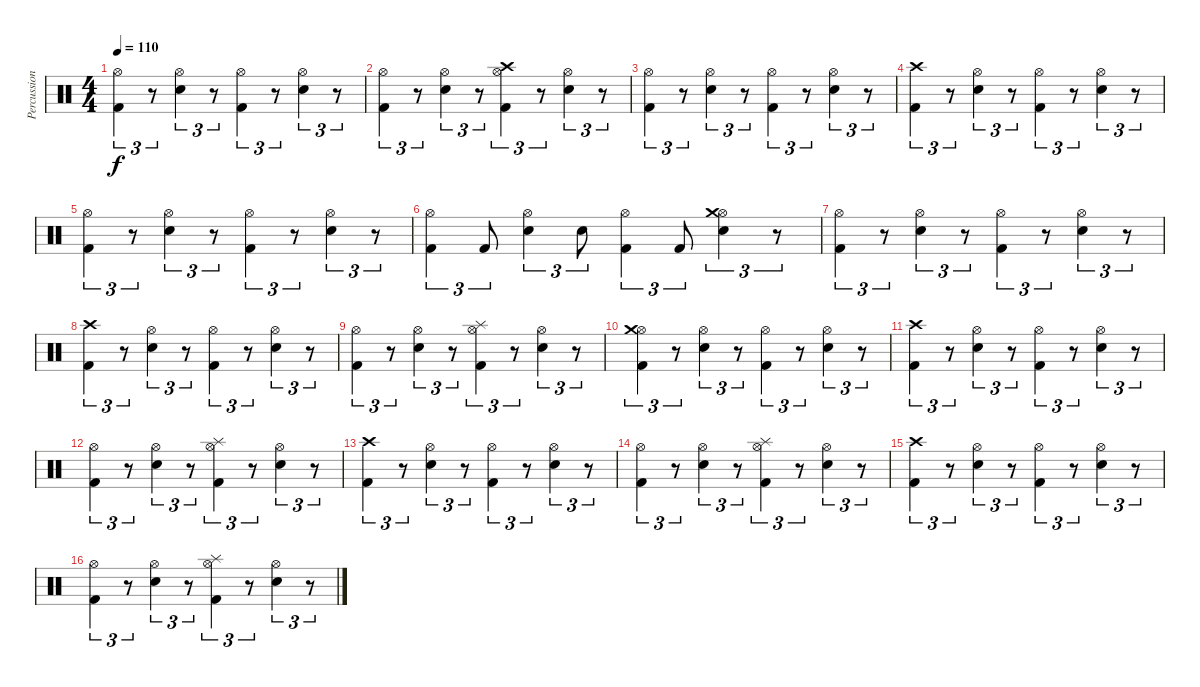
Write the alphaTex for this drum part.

\track ("Percussion" "Percussion") {instrument percussion}
\staff {score}
\articulation defaults
\ts (4 4)
\tempo 110
\clef neutral
\ks c
("Kick (hit) 2" "Hi-Hat (open)").4{tu (3 2) dy f} r.8{tu (3 2)} ("Electric Snare (hit)" "Hi-Hat (open)").4{tu (3 2)} r.8{tu (3 2)} ("Kick (hit) 2" "Hi-Hat (open)").4{tu (3 2)} r.8{tu (3 2)} ("Electric Snare (hit)" "Hi-Hat (open)").4{tu (3 2)} r.8{tu (3 2)} |
("Kick (hit) 2" "Hi-Hat (open)").4{tu (3 2)} r.8{tu (3 2)} ("Electric Snare (hit)" "Hi-Hat (open)").4{tu (3 2)} r.8{tu (3 2)} ("Kick (hit) 2" "Hi-Hat (open)" "Crash high (hit)").4{tu (3 2)} r.8{tu (3 2)} ("Electric Snare (hit)" "Hi-Hat (open)").4{tu (3 2)} r.8{tu (3 2)} |
("Kick (hit) 2" "Hi-Hat (open)").4{tu (3 2)} r.8{tu (3 2)} ("Electric Snare (hit)" "Hi-Hat (open)").4{tu (3 2)} r.8{tu (3 2)} ("Kick (hit) 2" "Hi-Hat (open)").4{tu (3 2)} r.8{tu (3 2)} ("Electric Snare (hit)" "Hi-Hat (open)").4{tu (3 2)} r.8{tu (3 2)} |
("Kick (hit) 2" "Crash high (hit)").4{tu (3 2)} r.8{tu (3 2)} ("Electric Snare (hit)" "Hi-Hat (open)").4{tu (3 2)} r.8{tu (3 2)} ("Kick (hit) 2" "Hi-Hat (open)").4{tu (3 2)} r.8{tu (3 2)} ("Electric Snare (hit)" "Hi-Hat (open)").4{tu (3 2)} r.8{tu (3 2)} |
("Kick (hit) 2" "Hi-Hat (open)").4{tu (3 2)} r.8{tu (3 2)} ("Electric Snare (hit)" "Hi-Hat (open)").4{tu (3 2)} r.8{tu (3 2)} ("Kick (hit) 2" "Hi-Hat (open)").4{tu (3 2)} r.8{tu (3 2)} ("Electric Snare (hit)" "Hi-Hat (open)").4{tu (3 2)} r.8{tu (3 2)} |
("Kick (hit) 2" "Hi-Hat (open)").4{tu (3 2)} "Kick (hit) 2".8{tu (3 2)} ("Electric Snare (hit)" "Hi-Hat (open)").4{tu (3 2)} "Electric Snare (hit)".8{tu (3 2)} ("Kick (hit) 2" "Hi-Hat (open)").4{tu (3 2)} "Kick (hit) 2".8{tu (3 2)} ("Electric Snare (hit)" "Hi-Hat (open)" "Crash medium (hit)").4{tu (3 2)} r.8{tu (3 2)} |
("Kick (hit) 2" "Hi-Hat (open)").4{tu (3 2)} r.8{tu (3 2)} ("Electric Snare (hit)" "Hi-Hat (open)").4{tu (3 2)} r.8{tu (3 2)} ("Kick (hit) 2" "Hi-Hat (open)").4{tu (3 2)} r.8{tu (3 2)} ("Electric Snare (hit)" "Hi-Hat (open)").4{tu (3 2)} r.8{tu (3 2)} |
("Kick (hit) 2" "Crash high (hit)").4{tu (3 2)} r.8{tu (3 2)} ("Electric Snare (hit)" "Hi-Hat (open)").4{tu (3 2)} r.8{tu (3 2)} ("Kick (hit) 2" "Hi-Hat (open)").4{tu (3 2)} r.8{tu (3 2)} ("Electric Snare (hit)" "Hi-Hat (open)").4{tu (3 2)} r.8{tu (3 2)} |
("Kick (hit) 2" "Hi-Hat (open)").4{tu (3 2)} r.8{tu (3 2)} ("Electric Snare (hit)" "Hi-Hat (open)").4{tu (3 2)} r.8{tu (3 2)} ("Kick (hit) 2" "Hi-Hat (open)" "Splash (hit)").4{tu (3 2)} r.8{tu (3 2)} ("Electric Snare (hit)" "Hi-Hat (open)").4{tu (3 2)} r.8{tu (3 2)} |
("Kick (hit) 2" "Hi-Hat (open)" "Crash medium (hit)").4{tu (3 2)} r.8{tu (3 2)} ("Electric Snare (hit)" "Hi-Hat (open)").4{tu (3 2)} r.8{tu (3 2)} ("Kick (hit) 2" "Hi-Hat (open)").4{tu (3 2)} r.8{tu (3 2)} ("Electric Snare (hit)" "Hi-Hat (open)").4{tu (3 2)} r.8{tu (3 2)} |
("Kick (hit) 2" "Crash high (hit)").4{tu (3 2)} r.8{tu (3 2)} ("Electric Snare (hit)" "Hi-Hat (open)").4{tu (3 2)} r.8{tu (3 2)} ("Kick (hit) 2" "Hi-Hat (open)").4{tu (3 2)} r.8{tu (3 2)} ("Electric Snare (hit)" "Hi-Hat (open)").4{tu (3 2)} r.8{tu (3 2)} |
("Kick (hit) 2" "Hi-Hat (open)").4{tu (3 2)} r.8{tu (3 2)} ("Electric Snare (hit)" "Hi-Hat (open)").4{tu (3 2)} r.8{tu (3 2)} ("Kick (hit) 2" "Hi-Hat (open)" "Splash (hit)").4{tu (3 2)} r.8{tu (3 2)} ("Electric Snare (hit)" "Hi-Hat (open)").4{tu (3 2)} r.8{tu (3 2)} |
("Kick (hit) 2" "Crash high (hit)").4{tu (3 2)} r.8{tu (3 2)} ("Electric Snare (hit)" "Hi-Hat (open)").4{tu (3 2)} r.8{tu (3 2)} ("Kick (hit) 2" "Hi-Hat (open)").4{tu (3 2)} r.8{tu (3 2)} ("Electric Snare (hit)" "Hi-Hat (open)").4{tu (3 2)} r.8{tu (3 2)} |
("Kick (hit) 2" "Hi-Hat (open)").4{tu (3 2)} r.8{tu (3 2)} ("Electric Snare (hit)" "Hi-Hat (open)").4{tu (3 2)} r.8{tu (3 2)} ("Kick (hit) 2" "Hi-Hat (open)" "Splash (hit)").4{tu (3 2)} r.8{tu (3 2)} ("Electric Snare (hit)" "Hi-Hat (open)").4{tu (3 2)} r.8{tu (3 2)} |
("Kick (hit) 2" "Crash high (hit)").4{tu (3 2)} r.8{tu (3 2)} ("Electric Snare (hit)" "Hi-Hat (open)").4{tu (3 2)} r.8{tu (3 2)} ("Kick (hit) 2" "Hi-Hat (open)").4{tu (3 2)} r.8{tu (3 2)} ("Electric Snare (hit)" "Hi-Hat (open)").4{tu (3 2)} r.8{tu (3 2)} |
("Kick (hit) 2" "Hi-Hat (open)").4{tu (3 2)} r.8{tu (3 2)} ("Electric Snare (hit)" "Hi-Hat (open)").4{tu (3 2)} r.8{tu (3 2)} ("Kick (hit) 2" "Hi-Hat (open)" "Splash (hit)").4{tu (3 2)} r.8{tu (3 2)} ("Electric Snare (hit)" "Hi-Hat (open)").4{tu (3 2)} r.8{tu (3 2)}
